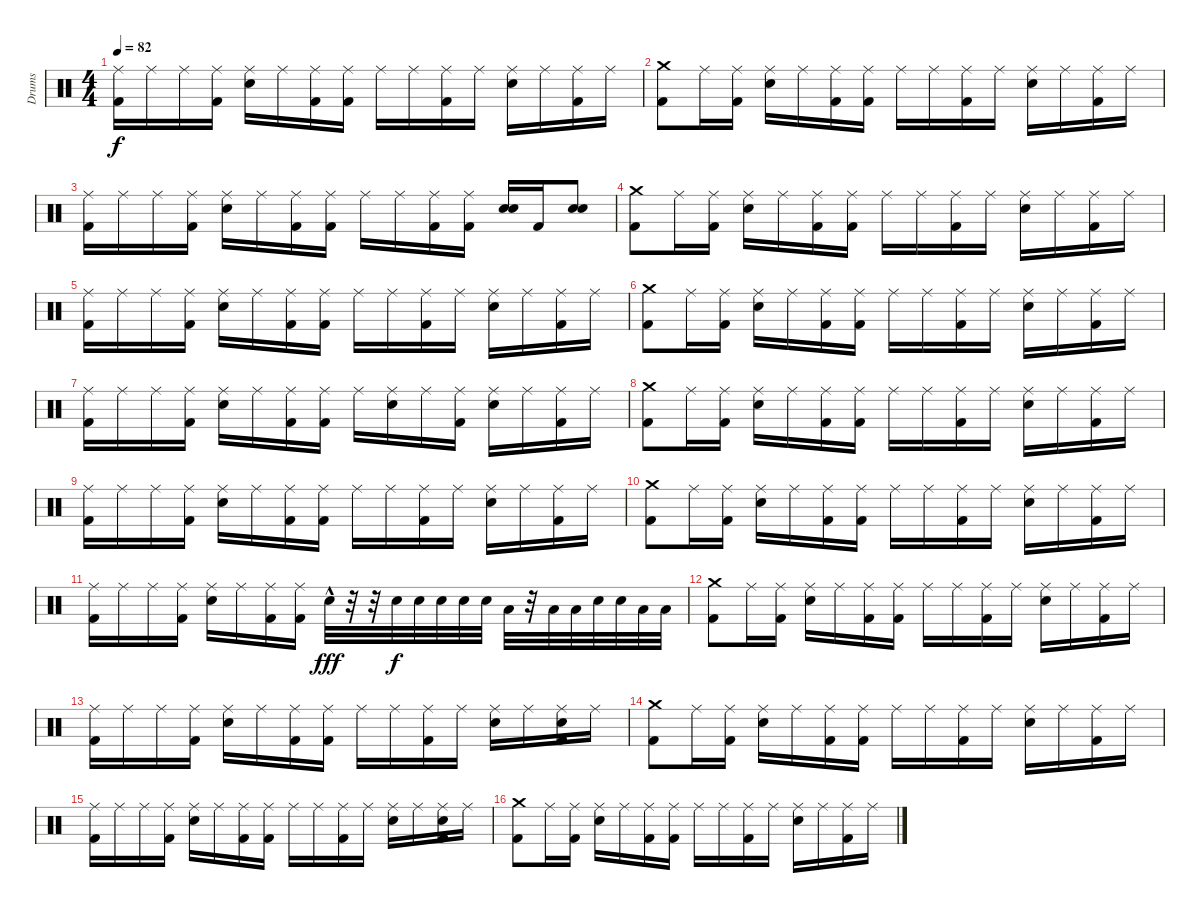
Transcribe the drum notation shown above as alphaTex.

\track ("Drums" "Drums") {instrument percussion}
\staff {score}
\articulation defaults
\ts (4 4)
\tempo 82
\clef neutral
\ks c
("Ride (middle)" "Kick (hit) 2").16{dy f} "Ride (middle)".16 "Ride (middle)".16 ("Ride (middle)" "Kick (hit) 2").16 ("Ride (middle)" "Snare (hit) 2").16 "Ride (middle)".16 ("Ride (middle)" "Kick (hit) 2").16 ("Ride (middle)" "Kick (hit) 2").16 "Ride (middle)".16 "Ride (middle)".16 ("Ride (middle)" "Kick (hit) 2").16 "Ride (middle)".16 ("Ride (middle)" "Snare (hit) 2").16 "Ride (middle)".16 ("Ride (middle)" "Kick (hit) 2").16 "Ride (middle)".16 |
("Crash medium (hit)" "Kick (hit) 2").8 "Ride (middle)".16 ("Ride (middle)" "Kick (hit) 2").16 ("Ride (middle)" "Snare (hit) 2").16 "Ride (middle)".16 ("Ride (middle)" "Kick (hit) 2").16 ("Ride (middle)" "Kick (hit) 2").16 "Ride (middle)".16 "Ride (middle)".16 ("Ride (middle)" "Kick (hit) 2").16 "Ride (middle)".16 ("Ride (middle)" "Snare (hit) 2").16 "Ride (middle)".16 ("Ride (middle)" "Kick (hit) 2").16 "Ride (middle)".16 |
("Ride (middle)" "Kick (hit) 2").16 "Ride (middle)".16 "Ride (middle)".16 ("Ride (middle)" "Kick (hit) 2").16 ("Ride (middle)" "Snare (hit) 2").16 "Ride (middle)".16 ("Ride (middle)" "Kick (hit) 2").16 ("Ride (middle)" "Kick (hit) 2").16 "Ride (middle)".16 "Ride (middle)".16 ("Ride (middle)" "Kick (hit) 2").16 ("Ride (middle)" "Kick (hit) 2").16 ("Snare (hit) 2" "Snare (hit) 2").16{bd 240} "Kick (hit) 2".16 ("Snare (hit) 2" "Snare (hit) 2").8{bd 240} |
("Crash medium (hit)" "Kick (hit) 2").8 "Ride (middle)".16 ("Ride (middle)" "Kick (hit) 2").16 ("Ride (middle)" "Snare (hit) 2").16 "Ride (middle)".16 ("Ride (middle)" "Kick (hit) 2").16 ("Ride (middle)" "Kick (hit) 2").16 "Ride (middle)".16 "Ride (middle)".16 ("Ride (middle)" "Kick (hit) 2").16 "Ride (middle)".16 ("Ride (middle)" "Snare (hit) 2").16 "Ride (middle)".16 ("Ride (middle)" "Kick (hit) 2").16 "Ride (middle)".16 |
("Ride (middle)" "Kick (hit) 2").16 "Ride (middle)".16 "Ride (middle)".16 ("Ride (middle)" "Kick (hit) 2").16 ("Ride (middle)" "Snare (hit) 2").16 "Ride (middle)".16 ("Ride (middle)" "Kick (hit) 2").16 ("Ride (middle)" "Kick (hit) 2").16 "Ride (middle)".16 "Ride (middle)".16 ("Ride (middle)" "Kick (hit) 2").16 "Ride (middle)".16 ("Ride (middle)" "Snare (hit) 2").16 "Ride (middle)".16 ("Ride (middle)" "Kick (hit) 2").16 "Ride (middle)".16 |
("Crash medium (hit)" "Kick (hit) 2").8 "Ride (middle)".16 ("Ride (middle)" "Kick (hit) 2").16 ("Ride (middle)" "Snare (hit) 2").16 "Ride (middle)".16 ("Ride (middle)" "Kick (hit) 2").16 ("Ride (middle)" "Kick (hit) 2").16 "Ride (middle)".16 "Ride (middle)".16 ("Ride (middle)" "Kick (hit) 2").16 "Ride (middle)".16 ("Ride (middle)" "Snare (hit) 2").16 "Ride (middle)".16 ("Ride (middle)" "Kick (hit) 2").16 "Ride (middle)".16 |
("Ride (middle)" "Kick (hit) 2").16 "Ride (middle)".16 "Ride (middle)".16 ("Ride (middle)" "Kick (hit) 2").16 ("Ride (middle)" "Snare (hit) 2").16 "Ride (middle)".16 ("Ride (middle)" "Kick (hit) 2").16 ("Ride (middle)" "Kick (hit) 2").16 "Ride (middle)".16 ("Ride (middle)" "Snare (hit) 2").16 "Ride (middle)".16 ("Ride (middle)" "Kick (hit) 2").16 ("Ride (middle)" "Snare (hit) 2").16 "Ride (middle)".16 ("Ride (middle)" "Kick (hit) 2").16 "Ride (middle)".16 |
("Crash medium (hit)" "Kick (hit) 2").8 "Ride (middle)".16 ("Ride (middle)" "Kick (hit) 2").16 ("Ride (middle)" "Snare (hit) 2").16 "Ride (middle)".16 ("Ride (middle)" "Kick (hit) 2").16 ("Ride (middle)" "Kick (hit) 2").16 "Ride (middle)".16 "Ride (middle)".16 ("Ride (middle)" "Kick (hit) 2").16 "Ride (middle)".16 ("Ride (middle)" "Snare (hit) 2").16 "Ride (middle)".16 ("Ride (middle)" "Kick (hit) 2").16 "Ride (middle)".16 |
("Ride (middle)" "Kick (hit) 2").16 "Ride (middle)".16 "Ride (middle)".16 ("Ride (middle)" "Kick (hit) 2").16 ("Ride (middle)" "Snare (hit) 2").16 "Ride (middle)".16 ("Ride (middle)" "Kick (hit) 2").16 ("Ride (middle)" "Kick (hit) 2").16 "Ride (middle)".16 "Ride (middle)".16 ("Ride (middle)" "Kick (hit) 2").16 "Ride (middle)".16 ("Ride (middle)" "Snare (hit) 2").16 "Ride (middle)".16 ("Ride (middle)" "Kick (hit) 2").16 "Ride (middle)".16 |
("Crash medium (hit)" "Kick (hit) 2").8 "Ride (middle)".16 ("Ride (middle)" "Kick (hit) 2").16 ("Ride (middle)" "Snare (hit) 2").16 "Ride (middle)".16 ("Ride (middle)" "Kick (hit) 2").16 ("Ride (middle)" "Kick (hit) 2").16 "Ride (middle)".16 "Ride (middle)".16 ("Ride (middle)" "Kick (hit) 2").16 "Ride (middle)".16 ("Ride (middle)" "Snare (hit) 2").16 "Ride (middle)".16 ("Ride (middle)" "Kick (hit) 2").16 "Ride (middle)".16 |
("Ride (middle)" "Kick (hit) 2").16 "Ride (middle)".16 "Ride (middle)".16 ("Ride (middle)" "Kick (hit) 2").16 ("Ride (middle)" "Snare (hit) 2").16 "Ride (middle)".16 ("Ride (middle)" "Kick (hit) 2").16 ("Ride (middle)" "Kick (hit) 2").16 "Snare (hit) 2"{hac}.32{dy fff} r.32 r.32 "Snare (hit) 2".32{dy f} "Snare (hit) 2".32 "Snare (hit) 2".32 "Snare (hit) 2".32 "Snare (hit) 2".32 "Low Tom (hit)".32 r.32 "Low Tom (hit)".32 "Low Tom (hit)".32 "Snare (hit) 2".32 "Snare (hit) 2".32 "Low Tom (hit)".32 "Low Tom (hit)".32 |
("Crash medium (hit)" "Kick (hit) 2").8 "Ride (middle)".16 ("Ride (middle)" "Kick (hit) 2").16 ("Ride (middle)" "Snare (hit) 2").16 "Ride (middle)".16 ("Ride (middle)" "Kick (hit) 2").16 ("Ride (middle)" "Kick (hit) 2").16 "Ride (middle)".16 "Ride (middle)".16 ("Ride (middle)" "Kick (hit) 2").16 "Ride (middle)".16 ("Ride (middle)" "Snare (hit) 2").16 "Ride (middle)".16 ("Ride (middle)" "Kick (hit) 2").16 "Ride (middle)".16 |
("Ride (middle)" "Kick (hit) 2").16 "Ride (middle)".16 "Ride (middle)".16 ("Ride (middle)" "Kick (hit) 2").16 ("Ride (middle)" "Snare (hit) 2").16 "Ride (middle)".16 ("Ride (middle)" "Kick (hit) 2").16 ("Ride (middle)" "Kick (hit) 2").16 "Ride (middle)".16 "Ride (middle)".16 ("Ride (middle)" "Kick (hit) 2").16 "Ride (middle)".16 ("Ride (middle)" "Snare (hit) 2").16 "Ride (middle)".16 ("Ride (middle)" "Snare (hit) 2" "Kick (hit) 2").16 "Ride (middle)".16 |
("Crash medium (hit)" "Kick (hit) 2").8 "Ride (middle)".16 ("Ride (middle)" "Kick (hit) 2").16 ("Ride (middle)" "Snare (hit) 2").16 "Ride (middle)".16 ("Ride (middle)" "Kick (hit) 2").16 ("Ride (middle)" "Kick (hit) 2").16 "Ride (middle)".16 "Ride (middle)".16 ("Ride (middle)" "Kick (hit) 2").16 "Ride (middle)".16 ("Ride (middle)" "Snare (hit) 2").16 "Ride (middle)".16 ("Ride (middle)" "Kick (hit) 2").16 "Ride (middle)".16 |
("Ride (middle)" "Kick (hit) 2").16 "Ride (middle)".16 "Ride (middle)".16 ("Ride (middle)" "Kick (hit) 2").16 ("Ride (middle)" "Snare (hit) 2").16 "Ride (middle)".16 ("Ride (middle)" "Kick (hit) 2").16 ("Ride (middle)" "Kick (hit) 2").16 "Ride (middle)".16 "Ride (middle)".16 ("Ride (middle)" "Kick (hit) 2").16 "Ride (middle)".16 ("Ride (middle)" "Snare (hit) 2").16 "Ride (middle)".16 ("Ride (middle)" "Snare (hit) 2" "Kick (hit) 2").16 "Ride (middle)".16 |
("Crash medium (hit)" "Kick (hit) 2").8 "Ride (middle)".16 ("Ride (middle)" "Kick (hit) 2").16 ("Ride (middle)" "Snare (hit) 2").16 "Ride (middle)".16 ("Ride (middle)" "Kick (hit) 2").16 ("Ride (middle)" "Kick (hit) 2").16 "Ride (middle)".16 "Ride (middle)".16 ("Ride (middle)" "Kick (hit) 2").16 "Ride (middle)".16 ("Ride (middle)" "Snare (hit) 2").16 "Ride (middle)".16 ("Ride (middle)" "Kick (hit) 2").16 "Ride (middle)".16
